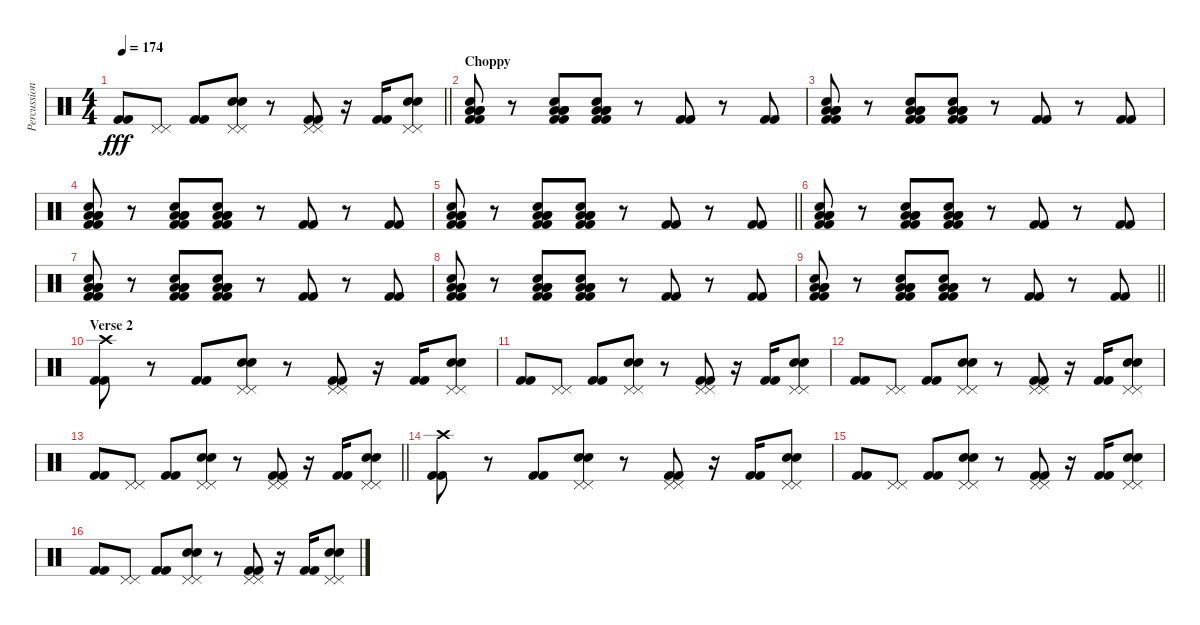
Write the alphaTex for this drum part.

\track ("Percussion" "Percussion") {instrument percussion}
\staff {score}
\articulation defaults
\ts (4 4)
\tempo 174
\clef neutral
\barLineRight lightlight
\ks c
("Kick (hit) 2" "Kick (hit) 2").8{dy fff} ("Pedal Hi-Hat (hit)" "Pedal Hi-Hat (hit)").8 ("Kick (hit) 2" "Kick (hit) 2").8 ("Pedal Hi-Hat (hit)" "Pedal Hi-Hat (hit)" "Electric Snare (hit)" "Electric Snare (hit)").8 r.8 ("Pedal Hi-Hat (hit)" "Pedal Hi-Hat (hit)" "Kick (hit) 2" "Kick (hit) 2").8 r.16 ("Kick (hit) 2" "Kick (hit) 2").16 ("Pedal Hi-Hat (hit)" "Pedal Hi-Hat (hit)" "Electric Snare (hit)" "Electric Snare (hit)").8 |
\section ("" "Choppy")
("Low Floor Tom (hit)" "Low Floor Tom (hit)" "Low Floor Tom (hit)" "Electric Snare (hit)" "Kick (hit) 2" "Kick (hit) 2").8 r.8 ("Low Floor Tom (hit)" "Low Floor Tom (hit)" "Low Floor Tom (hit)" "Electric Snare (hit)" "Kick (hit) 2" "Kick (hit) 2").8 ("Low Floor Tom (hit)" "Low Floor Tom (hit)" "Low Floor Tom (hit)" "Electric Snare (hit)" "Kick (hit) 2" "Kick (hit) 2").8 r.8 ("Kick (hit) 2" "Kick (hit) 2").8 r.8 ("Kick (hit) 2" "Kick (hit) 2").8 |
("Low Floor Tom (hit)" "Low Floor Tom (hit)" "Low Floor Tom (hit)" "Electric Snare (hit)" "Kick (hit) 2" "Kick (hit) 2").8 r.8 ("Low Floor Tom (hit)" "Low Floor Tom (hit)" "Low Floor Tom (hit)" "Electric Snare (hit)" "Kick (hit) 2" "Kick (hit) 2").8 ("Low Floor Tom (hit)" "Low Floor Tom (hit)" "Low Floor Tom (hit)" "Electric Snare (hit)" "Kick (hit) 2" "Kick (hit) 2").8 r.8 ("Kick (hit) 2" "Kick (hit) 2").8 r.8 ("Kick (hit) 2" "Kick (hit) 2").8 |
("Low Floor Tom (hit)" "Low Floor Tom (hit)" "Low Floor Tom (hit)" "Electric Snare (hit)" "Kick (hit) 2" "Kick (hit) 2").8 r.8 ("Low Floor Tom (hit)" "Low Floor Tom (hit)" "Low Floor Tom (hit)" "Electric Snare (hit)" "Kick (hit) 2" "Kick (hit) 2").8 ("Low Floor Tom (hit)" "Low Floor Tom (hit)" "Low Floor Tom (hit)" "Electric Snare (hit)" "Kick (hit) 2" "Kick (hit) 2").8 r.8 ("Kick (hit) 2" "Kick (hit) 2").8 r.8 ("Kick (hit) 2" "Kick (hit) 2").8 |
\barLineRight lightlight
("Low Floor Tom (hit)" "Low Floor Tom (hit)" "Low Floor Tom (hit)" "Electric Snare (hit)" "Kick (hit) 2" "Kick (hit) 2").8 r.8 ("Low Floor Tom (hit)" "Low Floor Tom (hit)" "Low Floor Tom (hit)" "Electric Snare (hit)" "Kick (hit) 2" "Kick (hit) 2").8 ("Low Floor Tom (hit)" "Low Floor Tom (hit)" "Low Floor Tom (hit)" "Electric Snare (hit)" "Kick (hit) 2" "Kick (hit) 2").8 r.8 ("Kick (hit) 2" "Kick (hit) 2").8 r.8 ("Kick (hit) 2" "Kick (hit) 2").8 |
("Low Floor Tom (hit)" "Low Floor Tom (hit)" "Low Floor Tom (hit)" "Electric Snare (hit)" "Kick (hit) 2" "Kick (hit) 2").8 r.8 ("Low Floor Tom (hit)" "Low Floor Tom (hit)" "Low Floor Tom (hit)" "Electric Snare (hit)" "Kick (hit) 2" "Kick (hit) 2").8 ("Low Floor Tom (hit)" "Low Floor Tom (hit)" "Low Floor Tom (hit)" "Electric Snare (hit)" "Kick (hit) 2" "Kick (hit) 2").8 r.8 ("Kick (hit) 2" "Kick (hit) 2").8 r.8 ("Kick (hit) 2" "Kick (hit) 2").8 |
("Low Floor Tom (hit)" "Low Floor Tom (hit)" "Low Floor Tom (hit)" "Electric Snare (hit)" "Kick (hit) 2" "Kick (hit) 2").8 r.8 ("Low Floor Tom (hit)" "Low Floor Tom (hit)" "Low Floor Tom (hit)" "Electric Snare (hit)" "Kick (hit) 2" "Kick (hit) 2").8 ("Low Floor Tom (hit)" "Low Floor Tom (hit)" "Low Floor Tom (hit)" "Electric Snare (hit)" "Kick (hit) 2" "Kick (hit) 2").8 r.8 ("Kick (hit) 2" "Kick (hit) 2").8 r.8 ("Kick (hit) 2" "Kick (hit) 2").8 |
("Low Floor Tom (hit)" "Low Floor Tom (hit)" "Low Floor Tom (hit)" "Electric Snare (hit)" "Kick (hit) 2" "Kick (hit) 2").8 r.8 ("Low Floor Tom (hit)" "Low Floor Tom (hit)" "Low Floor Tom (hit)" "Electric Snare (hit)" "Kick (hit) 2" "Kick (hit) 2").8 ("Low Floor Tom (hit)" "Low Floor Tom (hit)" "Low Floor Tom (hit)" "Electric Snare (hit)" "Kick (hit) 2" "Kick (hit) 2").8 r.8 ("Kick (hit) 2" "Kick (hit) 2").8 r.8 ("Kick (hit) 2" "Kick (hit) 2").8 |
\barLineRight lightlight
("Low Floor Tom (hit)" "Low Floor Tom (hit)" "Low Floor Tom (hit)" "Electric Snare (hit)" "Kick (hit) 2" "Kick (hit) 2").8 r.8 ("Low Floor Tom (hit)" "Low Floor Tom (hit)" "Low Floor Tom (hit)" "Electric Snare (hit)" "Kick (hit) 2" "Kick (hit) 2").8 ("Low Floor Tom (hit)" "Low Floor Tom (hit)" "Low Floor Tom (hit)" "Electric Snare (hit)" "Kick (hit) 2" "Kick (hit) 2").8 r.8 ("Kick (hit) 2" "Kick (hit) 2").8 r.8 ("Kick (hit) 2" "Kick (hit) 2").8 |
\section ("" "Verse 2")
("Crash high (hit)" "Kick (hit) 2" "Kick (hit) 2").8 r.8 ("Kick (hit) 2" "Kick (hit) 2").8 ("Pedal Hi-Hat (hit)" "Pedal Hi-Hat (hit)" "Electric Snare (hit)" "Electric Snare (hit)").8 r.8 ("Pedal Hi-Hat (hit)" "Pedal Hi-Hat (hit)" "Kick (hit) 2" "Kick (hit) 2").8 r.16 ("Kick (hit) 2" "Kick (hit) 2").16 ("Pedal Hi-Hat (hit)" "Pedal Hi-Hat (hit)" "Electric Snare (hit)" "Electric Snare (hit)").8 |
("Kick (hit) 2" "Kick (hit) 2").8 ("Pedal Hi-Hat (hit)" "Pedal Hi-Hat (hit)").8 ("Kick (hit) 2" "Kick (hit) 2").8 ("Pedal Hi-Hat (hit)" "Pedal Hi-Hat (hit)" "Electric Snare (hit)" "Electric Snare (hit)").8 r.8 ("Pedal Hi-Hat (hit)" "Pedal Hi-Hat (hit)" "Kick (hit) 2" "Kick (hit) 2").8 r.16 ("Kick (hit) 2" "Kick (hit) 2").16 ("Pedal Hi-Hat (hit)" "Pedal Hi-Hat (hit)" "Electric Snare (hit)" "Electric Snare (hit)").8 |
("Kick (hit) 2" "Kick (hit) 2").8 ("Pedal Hi-Hat (hit)" "Pedal Hi-Hat (hit)").8 ("Kick (hit) 2" "Kick (hit) 2").8 ("Pedal Hi-Hat (hit)" "Pedal Hi-Hat (hit)" "Electric Snare (hit)" "Electric Snare (hit)").8 r.8 ("Pedal Hi-Hat (hit)" "Pedal Hi-Hat (hit)" "Kick (hit) 2" "Kick (hit) 2").8 r.16 ("Kick (hit) 2" "Kick (hit) 2").16 ("Pedal Hi-Hat (hit)" "Pedal Hi-Hat (hit)" "Electric Snare (hit)" "Electric Snare (hit)").8 |
\barLineRight lightlight
("Kick (hit) 2" "Kick (hit) 2").8 ("Pedal Hi-Hat (hit)" "Pedal Hi-Hat (hit)").8 ("Kick (hit) 2" "Kick (hit) 2").8 ("Pedal Hi-Hat (hit)" "Pedal Hi-Hat (hit)" "Electric Snare (hit)" "Electric Snare (hit)").8 r.8 ("Pedal Hi-Hat (hit)" "Pedal Hi-Hat (hit)" "Kick (hit) 2" "Kick (hit) 2").8 r.16 ("Kick (hit) 2" "Kick (hit) 2").16 ("Pedal Hi-Hat (hit)" "Pedal Hi-Hat (hit)" "Electric Snare (hit)" "Electric Snare (hit)").8 |
("Crash high (hit)" "Kick (hit) 2" "Kick (hit) 2").8 r.8 ("Kick (hit) 2" "Kick (hit) 2").8 ("Pedal Hi-Hat (hit)" "Pedal Hi-Hat (hit)" "Electric Snare (hit)" "Electric Snare (hit)").8 r.8 ("Pedal Hi-Hat (hit)" "Pedal Hi-Hat (hit)" "Kick (hit) 2" "Kick (hit) 2").8 r.16 ("Kick (hit) 2" "Kick (hit) 2").16 ("Pedal Hi-Hat (hit)" "Pedal Hi-Hat (hit)" "Electric Snare (hit)" "Electric Snare (hit)").8 |
("Kick (hit) 2" "Kick (hit) 2").8 ("Pedal Hi-Hat (hit)" "Pedal Hi-Hat (hit)").8 ("Kick (hit) 2" "Kick (hit) 2").8 ("Pedal Hi-Hat (hit)" "Pedal Hi-Hat (hit)" "Electric Snare (hit)" "Electric Snare (hit)").8 r.8 ("Pedal Hi-Hat (hit)" "Pedal Hi-Hat (hit)" "Kick (hit) 2" "Kick (hit) 2").8 r.16 ("Kick (hit) 2" "Kick (hit) 2").16 ("Pedal Hi-Hat (hit)" "Pedal Hi-Hat (hit)" "Electric Snare (hit)" "Electric Snare (hit)").8 |
("Kick (hit) 2" "Kick (hit) 2").8 ("Pedal Hi-Hat (hit)" "Pedal Hi-Hat (hit)").8 ("Kick (hit) 2" "Kick (hit) 2").8 ("Pedal Hi-Hat (hit)" "Pedal Hi-Hat (hit)" "Electric Snare (hit)" "Electric Snare (hit)").8 r.8 ("Pedal Hi-Hat (hit)" "Pedal Hi-Hat (hit)" "Kick (hit) 2" "Kick (hit) 2").8 r.16 ("Kick (hit) 2" "Kick (hit) 2").16 ("Pedal Hi-Hat (hit)" "Pedal Hi-Hat (hit)" "Electric Snare (hit)" "Electric Snare (hit)").8
